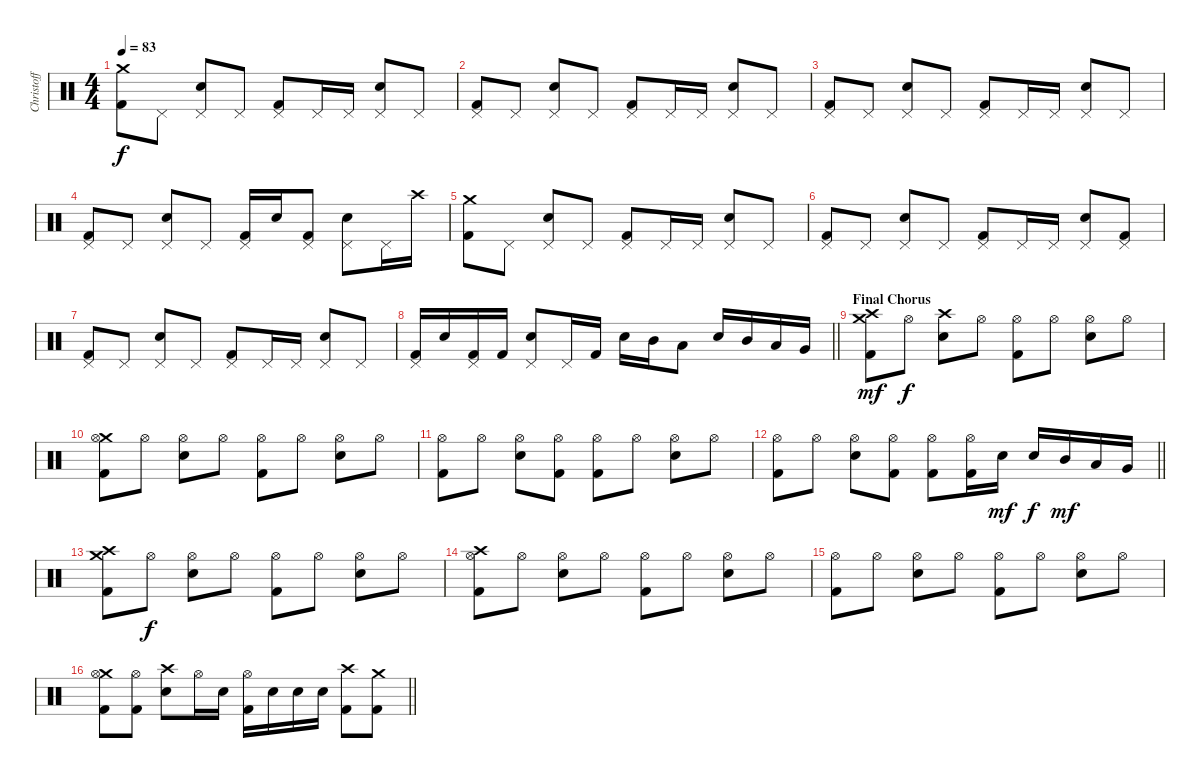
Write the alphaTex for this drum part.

\track ("Christoff" "Christoff") {instrument percussion}
\staff {score}
\articulation defaults
\ts (4 4)
\tempo 83
\clef neutral
\ks c
("Crash medium (hit)" "Kick (hit) 2").8{dy f} "Pedal Hi-Hat (hit)".8 ("Pedal Hi-Hat (hit)" "Electric Snare (hit)").8 "Pedal Hi-Hat (hit)".8 ("Pedal Hi-Hat (hit)" "Kick (hit) 2").8 "Pedal Hi-Hat (hit)".16 "Pedal Hi-Hat (hit)".16 ("Pedal Hi-Hat (hit)" "Electric Snare (hit)").8 "Pedal Hi-Hat (hit)".8 |
("Pedal Hi-Hat (hit)" "Kick (hit) 2").8 "Pedal Hi-Hat (hit)".8 ("Pedal Hi-Hat (hit)" "Electric Snare (hit)").8 "Pedal Hi-Hat (hit)".8 ("Pedal Hi-Hat (hit)" "Kick (hit) 2").8 "Pedal Hi-Hat (hit)".16 "Pedal Hi-Hat (hit)".16 ("Pedal Hi-Hat (hit)" "Electric Snare (hit)").8 "Pedal Hi-Hat (hit)".8 |
("Pedal Hi-Hat (hit)" "Kick (hit) 2").8 "Pedal Hi-Hat (hit)".8 ("Pedal Hi-Hat (hit)" "Electric Snare (hit)").8 "Pedal Hi-Hat (hit)".8 ("Pedal Hi-Hat (hit)" "Kick (hit) 2").8 "Pedal Hi-Hat (hit)".16 "Pedal Hi-Hat (hit)".16 ("Pedal Hi-Hat (hit)" "Electric Snare (hit)").8 "Pedal Hi-Hat (hit)".8 |
("Pedal Hi-Hat (hit)" "Kick (hit) 2").8 "Pedal Hi-Hat (hit)".8 ("Pedal Hi-Hat (hit)" "Electric Snare (hit)").8 "Pedal Hi-Hat (hit)".8 ("Pedal Hi-Hat (hit)" "Kick (hit) 2").16 "Electric Snare (hit)".16 ("Pedal Hi-Hat (hit)" "Kick (hit) 2").8 ("Pedal Hi-Hat (hit)" "Electric Snare (hit)").8 "Pedal Hi-Hat (hit)".16 "Crash high (hit)".16 |
("Crash medium (hit)" "Kick (hit) 2").8 "Pedal Hi-Hat (hit)".8 ("Pedal Hi-Hat (hit)" "Electric Snare (hit)").8 "Pedal Hi-Hat (hit)".8 ("Pedal Hi-Hat (hit)" "Kick (hit) 2").8 "Pedal Hi-Hat (hit)".16 "Pedal Hi-Hat (hit)".16 ("Pedal Hi-Hat (hit)" "Electric Snare (hit)").8 "Pedal Hi-Hat (hit)".8 |
("Pedal Hi-Hat (hit)" "Kick (hit) 2").8 "Pedal Hi-Hat (hit)".8 ("Pedal Hi-Hat (hit)" "Electric Snare (hit)").8 "Pedal Hi-Hat (hit)".8 ("Pedal Hi-Hat (hit)" "Kick (hit) 2").8 "Pedal Hi-Hat (hit)".16 "Pedal Hi-Hat (hit)".16 ("Pedal Hi-Hat (hit)" "Electric Snare (hit)").8 ("Pedal Hi-Hat (hit)" "Kick (hit) 2").8 |
("Pedal Hi-Hat (hit)" "Kick (hit) 2").8 "Pedal Hi-Hat (hit)".8 ("Pedal Hi-Hat (hit)" "Electric Snare (hit)").8 "Pedal Hi-Hat (hit)".8 ("Pedal Hi-Hat (hit)" "Kick (hit) 2").8 "Pedal Hi-Hat (hit)".16 "Pedal Hi-Hat (hit)".16 ("Pedal Hi-Hat (hit)" "Electric Snare (hit)").8 "Pedal Hi-Hat (hit)".8 |
\barLineRight lightlight
("Pedal Hi-Hat (hit)" "Kick (hit) 2").16 "Electric Snare (hit)".16 ("Pedal Hi-Hat (hit)" "Kick (hit) 2").16 "Kick (hit) 2".16 ("Pedal Hi-Hat (hit)" "Electric Snare (hit)").8 "Pedal Hi-Hat (hit)".16 "Kick (hit) 2".16 "Electric Snare (hit)".16 "Mid Tom (hit)".16 "Low Tom (hit)".8 "Electric Snare (hit)".16 "Mid Tom (hit)".16 "Low Tom (hit)".16 "Very Low Tom (hit)".16 |
\section ("" "Final Chorus")
("Crash medium (hit)" "Crash high (hit)" "Kick (hit) 2").8{dy mf} "Hi-Hat (open)".8{dy f} ("Crash high (hit)" "Electric Snare (hit)").8 "Hi-Hat (open)".8 ("Hi-Hat (open)" "Kick (hit) 2").8 "Hi-Hat (open)".8 ("Hi-Hat (open)" "Electric Snare (hit)").8 "Hi-Hat (open)".8 |
("Crash medium (hit)" "Hi-Hat (open)" "Kick (hit) 2").8 "Hi-Hat (open)".8 ("Hi-Hat (open)" "Electric Snare (hit)").8 "Hi-Hat (open)".8 ("Hi-Hat (open)" "Kick (hit) 2").8 "Hi-Hat (open)".8 ("Hi-Hat (open)" "Electric Snare (hit)").8 "Hi-Hat (open)".8 |
("Hi-Hat (open)" "Kick (hit) 2").8 "Hi-Hat (open)".8 ("Hi-Hat (open)" "Electric Snare (hit)").8 ("Hi-Hat (open)" "Kick (hit) 2").8 ("Hi-Hat (open)" "Kick (hit) 2").8 "Hi-Hat (open)".8 ("Hi-Hat (open)" "Electric Snare (hit)").8 "Hi-Hat (open)".8 |
\barLineRight lightlight
("Hi-Hat (open)" "Kick (hit) 2").8 "Hi-Hat (open)".8 ("Hi-Hat (open)" "Electric Snare (hit)").8 ("Hi-Hat (open)" "Kick (hit) 2").8 ("Hi-Hat (open)" "Kick (hit) 2").8 ("Hi-Hat (open)" "Kick (hit) 2").16 "Electric Snare (hit)".16{dy mf} "Electric Snare (hit)".16{dy f} "Mid Tom (hit)".16{dy mf} "Low Tom (hit)".16 "Very Low Tom (hit)".16 |
("Crash medium (hit)" "Crash high (hit)" "Kick (hit) 2").8 "Hi-Hat (open)".8{dy f} ("Hi-Hat (open)" "Electric Snare (hit)").8 "Hi-Hat (open)".8 ("Hi-Hat (open)" "Kick (hit) 2").8 "Hi-Hat (open)".8 ("Hi-Hat (open)" "Electric Snare (hit)").8 "Hi-Hat (open)".8 |
("Crash high (hit)" "Hi-Hat (open)" "Kick (hit) 2").8 "Hi-Hat (open)".8 ("Hi-Hat (open)" "Electric Snare (hit)").8 "Hi-Hat (open)".8 ("Hi-Hat (open)" "Kick (hit) 2").8 "Hi-Hat (open)".8 ("Hi-Hat (open)" "Electric Snare (hit)").8 "Hi-Hat (open)".8 |
("Hi-Hat (open)" "Kick (hit) 2").8 "Hi-Hat (open)".8 ("Hi-Hat (open)" "Electric Snare (hit)").8 "Hi-Hat (open)".8 ("Hi-Hat (open)" "Kick (hit) 2").8 "Hi-Hat (open)".8 ("Hi-Hat (open)" "Electric Snare (hit)").8 "Hi-Hat (open)".8 |
\barLineRight lightlight
("Crash medium (hit)" "Hi-Hat (open)" "Kick (hit) 2").8 ("Hi-Hat (open)" "Kick (hit) 2").8 ("Crash high (hit)" "Electric Snare (hit)").8 "Hi-Hat (open)".16 "Electric Snare (hit)".16 ("Hi-Hat (open)" "Kick (hit) 2").16 "Electric Snare (hit)".16 "Electric Snare (hit)".16 "Electric Snare (hit)".16 ("Crash high (hit)" "Kick (hit) 2").8 ("Crash medium (hit)" "Kick (hit) 2").8
